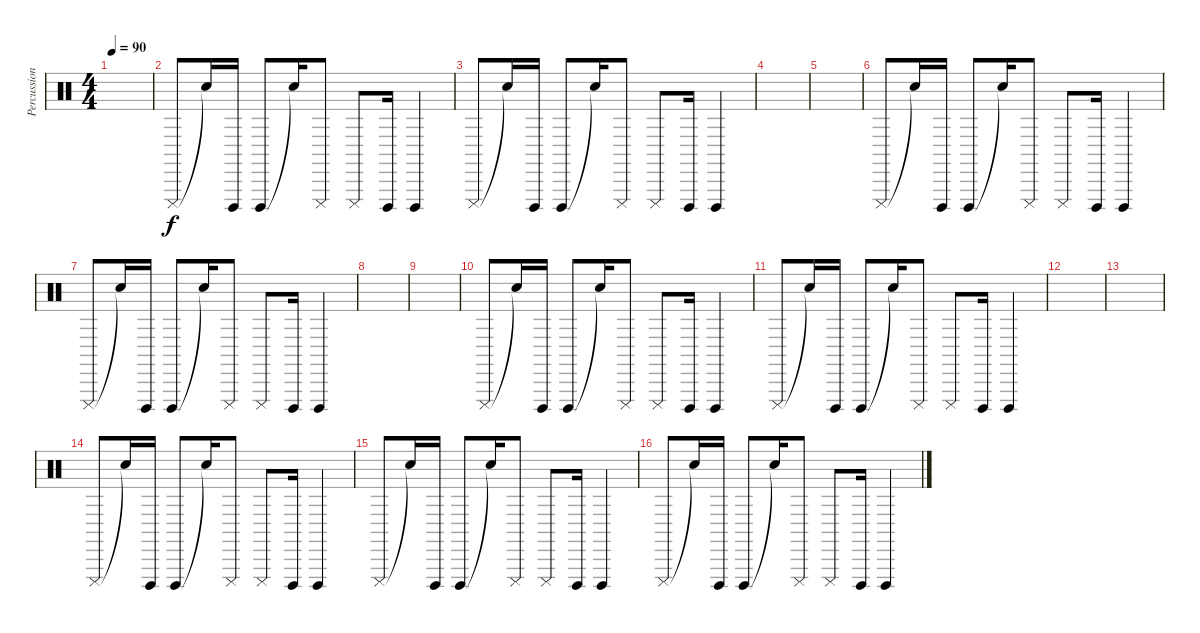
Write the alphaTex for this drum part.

\track ("Percussions" "Percussion") {instrument percussion}
\staff {score}
\articulation defaults
\ts (4 4)
\tempo 90
\clef neutral
\ks c
|
"Cuica (mute)".8 "Snare (hit)"{t}.16 "Cuica (open)".16 "Cuica (open)".8 "Snare (hit)"{t}.16 "Cuica (mute)".8 "Cuica (mute)".8 "Cuica (open)".16 "Cuica (open)".4 |
"Cuica (mute)".8 "Snare (hit)"{t}.16 "Cuica (open)".16 "Cuica (open)".8 "Snare (hit)"{t}.16 "Cuica (mute)".8 "Cuica (mute)".8 "Cuica (open)".16 "Cuica (open)".4 |
|
|
"Cuica (mute)".8 "Snare (hit)"{t}.16 "Cuica (open)".16 "Cuica (open)".8 "Snare (hit)"{t}.16 "Cuica (mute)".8 "Cuica (mute)".8 "Cuica (open)".16 "Cuica (open)".4 |
"Cuica (mute)".8 "Snare (hit)"{t}.16 "Cuica (open)".16 "Cuica (open)".8 "Snare (hit)"{t}.16 "Cuica (mute)".8 "Cuica (mute)".8 "Cuica (open)".16 "Cuica (open)".4 |
|
|
"Cuica (mute)".8 "Snare (hit)"{t}.16 "Cuica (open)".16 "Cuica (open)".8 "Snare (hit)"{t}.16 "Cuica (mute)".8 "Cuica (mute)".8 "Cuica (open)".16 "Cuica (open)".4 |
"Cuica (mute)".8 "Snare (hit)"{t}.16 "Cuica (open)".16 "Cuica (open)".8 "Snare (hit)"{t}.16 "Cuica (mute)".8 "Cuica (mute)".8 "Cuica (open)".16 "Cuica (open)".4 |
|
|
"Cuica (mute)".8 "Snare (hit)"{t}.16 "Cuica (open)".16 "Cuica (open)".8 "Snare (hit)"{t}.16 "Cuica (mute)".8 "Cuica (mute)".8 "Cuica (open)".16 "Cuica (open)".4 |
"Cuica (mute)".8 "Snare (hit)"{t}.16 "Cuica (open)".16 "Cuica (open)".8 "Snare (hit)"{t}.16 "Cuica (mute)".8 "Cuica (mute)".8 "Cuica (open)".16 "Cuica (open)".4 |
"Cuica (mute)".8 "Snare (hit)"{t}.16 "Cuica (open)".16 "Cuica (open)".8 "Snare (hit)"{t}.16 "Cuica (mute)".8 "Cuica (mute)".8 "Cuica (open)".16 "Cuica (open)".4
